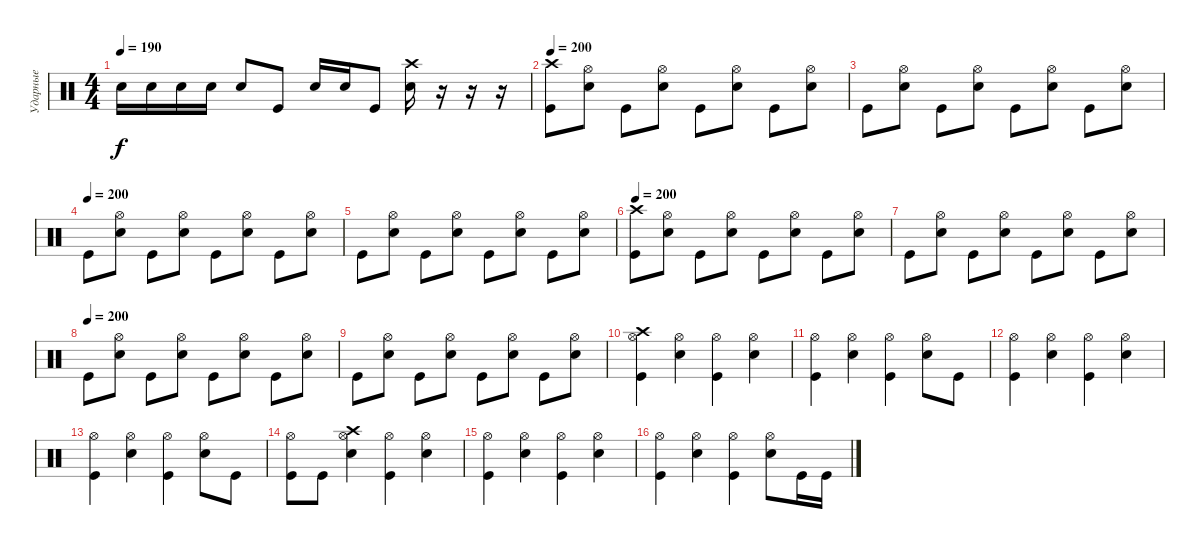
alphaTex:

\track ("Ударные" "Ударные") {instrument percussion}
\staff {score}
\articulation defaults
\ts (4 4)
\tempo 190
\clef neutral
\ks c "Electric Snare (hit)".16{dy f} "Electric Snare (hit)".16 "Electric Snare (hit)".16 "Electric Snare (hit)".16 "Electric Snare (hit)".8 "Kick (hit)".8 "Electric Snare (hit)".16 "Electric Snare (hit)".16 "Kick (hit)".8
("Electric Snare (hit)" "Crash high (hit)").16 r.16 r.16 r.16 |
\tempo 200
("Crash high (hit)" "Kick (hit)").8 ("Hi-Hat (open)" "Electric Snare (hit)").8 "Kick (hit)".8 ("Hi-Hat (open)" "Electric Snare (hit)").8 "Kick (hit)".8 ("Hi-Hat (open)" "Electric Snare (hit)").8 "Kick (hit)".8 ("Hi-Hat (open)" "Electric Snare (hit)").8 |
"Kick (hit)".8 ("Hi-Hat (open)" "Electric Snare (hit)").8 "Kick (hit)".8 ("Hi-Hat (open)" "Electric Snare (hit)").8 "Kick (hit)".8 ("Hi-Hat (open)" "Electric Snare (hit)").8 "Kick (hit)".8 ("Hi-Hat (open)" "Electric Snare (hit)").8 |
\tempo (200)
"Kick (hit)".8 ("Hi-Hat (open)" "Electric Snare (hit)").8 "Kick (hit)".8 ("Hi-Hat (open)" "Electric Snare (hit)").8 "Kick (hit)".8 ("Hi-Hat (open)" "Electric Snare (hit)").8 "Kick (hit)".8 ("Hi-Hat (open)" "Electric Snare (hit)").8 |
"Kick (hit)".8 ("Hi-Hat (open)" "Electric Snare (hit)").8 "Kick (hit)".8 ("Hi-Hat (open)" "Electric Snare (hit)").8 "Kick (hit)".8 ("Hi-Hat (open)" "Electric Snare (hit)").8 "Kick (hit)".8 ("Hi-Hat (open)" "Electric Snare (hit)").8 |
\tempo 200
("Crash high (hit)" "Kick (hit)").8 ("Hi-Hat (open)" "Electric Snare (hit)").8 "Kick (hit)".8 ("Hi-Hat (open)" "Electric Snare (hit)").8 "Kick (hit)".8 ("Hi-Hat (open)" "Electric Snare (hit)").8 "Kick (hit)".8 ("Hi-Hat (open)" "Electric Snare (hit)").8 |
"Kick (hit)".8 ("Hi-Hat (open)" "Electric Snare (hit)").8 "Kick (hit)".8 ("Hi-Hat (open)" "Electric Snare (hit)").8 "Kick (hit)".8 ("Hi-Hat (open)" "Electric Snare (hit)").8 "Kick (hit)".8 ("Hi-Hat (open)" "Electric Snare (hit)").8 |
\tempo (200)
"Kick (hit)".8 ("Hi-Hat (open)" "Electric Snare (hit)").8 "Kick (hit)".8 ("Hi-Hat (open)" "Electric Snare (hit)").8 "Kick (hit)".8 ("Hi-Hat (open)" "Electric Snare (hit)").8 "Kick (hit)".8 ("Hi-Hat (open)" "Electric Snare (hit)").8 |
"Kick (hit)".8 ("Hi-Hat (open)" "Electric Snare (hit)").8 "Kick (hit)".8 ("Hi-Hat (open)" "Electric Snare (hit)").8 "Kick (hit)".8 ("Hi-Hat (open)" "Electric Snare (hit)").8 "Kick (hit)".8 ("Hi-Hat (open)" "Electric Snare (hit)").8 |
("Hi-Hat (open)" "Crash high (hit)" "Kick (hit)").4 ("Hi-Hat (open)" "Electric Snare (hit)").4 ("Hi-Hat (open)" "Kick (hit)").4 ("Hi-Hat (open)" "Electric Snare (hit)").4 |
("Hi-Hat (open)" "Kick (hit)").4 ("Hi-Hat (open)" "Electric Snare (hit)").4 ("Hi-Hat (open)" "Kick (hit)").4 ("Hi-Hat (open)" "Electric Snare (hit)").8 "Kick (hit)".8 |
("Hi-Hat (open)" "Kick (hit)").4 ("Hi-Hat (open)" "Electric Snare (hit)").4 ("Hi-Hat (open)" "Kick (hit)").4 ("Hi-Hat (open)" "Electric Snare (hit)").4 |
("Hi-Hat (open)" "Kick (hit)").4 ("Hi-Hat (open)" "Electric Snare (hit)").4 ("Hi-Hat (open)" "Kick (hit)").4 ("Hi-Hat (open)" "Electric Snare (hit)").8 "Kick (hit)".8 |
("Hi-Hat (open)" "Kick (hit)").8 "Kick (hit)".8 ("Hi-Hat (open)" "Electric Snare (hit)" "Crash high (hit)").4 ("Hi-Hat (open)" "Kick (hit)").4 ("Hi-Hat (open)" "Electric Snare (hit)").4 |
("Hi-Hat (open)" "Kick (hit)").4 ("Hi-Hat (open)" "Electric Snare (hit)").4 ("Hi-Hat (open)" "Kick (hit)").4 ("Hi-Hat (open)" "Electric Snare (hit)").4 |
("Hi-Hat (open)" "Kick (hit)").4 ("Hi-Hat (open)" "Electric Snare (hit)").4 ("Hi-Hat (open)" "Kick (hit)").4 ("Hi-Hat (open)" "Electric Snare (hit)").8 "Kick (hit)".16 "Kick (hit)".16
